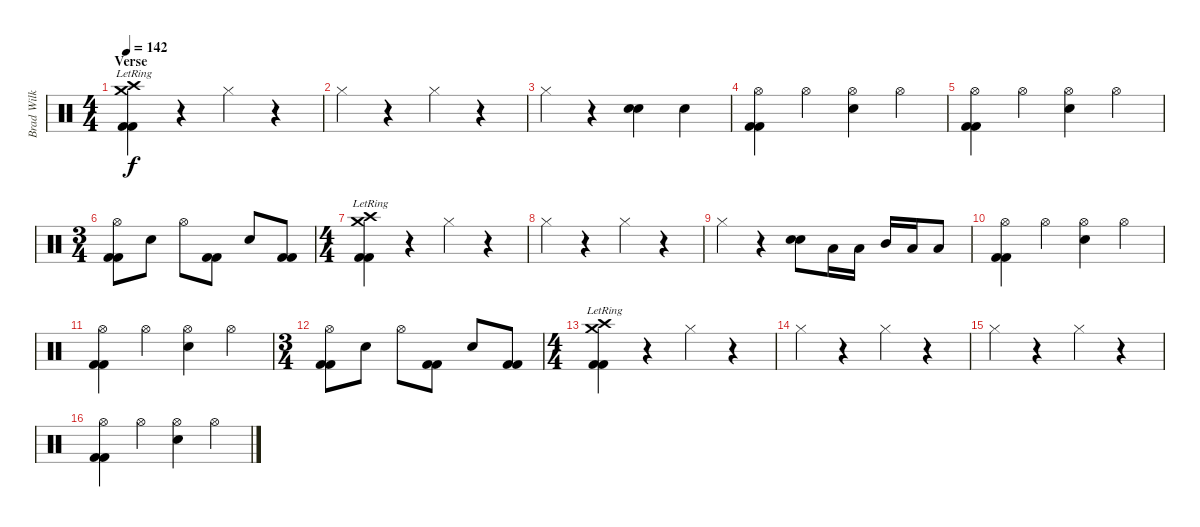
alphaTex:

\track ("Brad Wilk" "Brad Wilk") {instrument percussion}
\staff {score}
\articulation defaults
\ts (4 4)
\section ("" "Verse")
\tempo 142
\clef neutral
\ks c
("Crash medium (hit)"{lr} "Crash high (hit)"{lr} "Kick (hit) 2"{lr} "Kick (hit) 2"{lr}).4{dy f} r.4 "Hi-Hat (closed)".4 r.4 |
"Hi-Hat (closed)".4 r.4 "Hi-Hat (closed)".4 r.4 |
"Hi-Hat (closed)".4 r.4 ("Electric Snare (hit)" "Electric Snare (hit)").4{bd 120} "Electric Snare (hit)".4 |
("Hi-Hat (open)" "Kick (hit) 2" "Kick (hit) 2").4 "Hi-Hat (open)".4 ("Hi-Hat (open)" "Electric Snare (hit)").4 "Hi-Hat (open)".4 |
("Hi-Hat (open)" "Kick (hit) 2" "Kick (hit) 2").4 "Hi-Hat (open)".4 ("Hi-Hat (open)" "Electric Snare (hit)").4 "Hi-Hat (open)".4 |
\ts (3 4)
("Hi-Hat (open)" "Kick (hit) 2" "Kick (hit) 2").8 "Electric Snare (hit)".8 "Hi-Hat (open)".8 ("Kick (hit) 2" "Kick (hit) 2").8 "Electric Snare (hit)".8 ("Kick (hit) 2" "Kick (hit) 2").8 |
\ts (4 4)
("Crash medium (hit)"{lr} "Crash high (hit)"{lr} "Kick (hit) 2" "Kick (hit) 2").4 r.4 "Hi-Hat (closed)".4 r.4 |
"Hi-Hat (closed)".4 r.4 "Hi-Hat (closed)".4 r.4 |
"Hi-Hat (closed)".4 r.4 ("Electric Snare (hit)" "Electric Snare (hit)").8 "Low Tom (hit)".16 "Low Tom (hit)".16 "Mid Tom (hit)".16 "Low Tom (hit)".16 "Low Tom (hit)".8 |
("Hi-Hat (open)" "Kick (hit) 2" "Kick (hit) 2").4 "Hi-Hat (open)".4 ("Hi-Hat (open)" "Electric Snare (hit)").4 "Hi-Hat (open)".4 |
("Hi-Hat (open)" "Kick (hit) 2" "Kick (hit) 2").4 "Hi-Hat (open)".4 ("Hi-Hat (open)" "Electric Snare (hit)").4 "Hi-Hat (open)".4 |
\ts (3 4)
("Hi-Hat (open)" "Kick (hit) 2" "Kick (hit) 2").8 "Electric Snare (hit)".8 "Hi-Hat (open)".8 ("Kick (hit) 2" "Kick (hit) 2").8 "Electric Snare (hit)".8 ("Kick (hit) 2" "Kick (hit) 2").8 |
\ts (4 4)
("Crash medium (hit)"{lr} "Crash high (hit)"{lr} "Kick (hit) 2" "Kick (hit) 2").4 r.4 "Hi-Hat (closed)".4 r.4 |
"Hi-Hat (closed)".4 r.4 "Hi-Hat (closed)".4 r.4 |
"Hi-Hat (closed)".4 r.4 "Hi-Hat (closed)".4 r.4 |
("Hi-Hat (open)" "Kick (hit) 2" "Kick (hit) 2").4 "Hi-Hat (open)".4 ("Hi-Hat (open)" "Electric Snare (hit)").4 "Hi-Hat (open)".4
